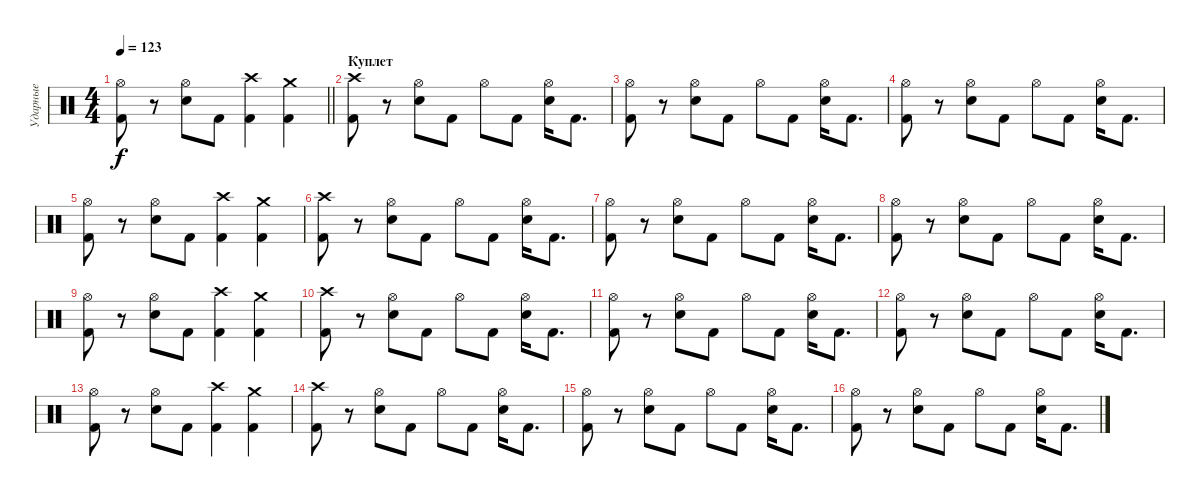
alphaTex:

\track ("Ударные" "Ударные") {instrument percussion}
\staff {score}
\articulation defaults
\ts (4 4)
\tempo 123
\clef neutral
\barLineRight lightlight
\ks c
("Hi-Hat (open)" "Kick (hit) 2").8{dy f} r.8 ("Hi-Hat (open)" "Electric Snare (hit)").8 "Kick (hit) 2".8 ("Kick (hit) 2" "Crash high (hit)").4 ("Kick (hit) 2" "Crash medium (hit)").4 |
\section ("" "Куплет")
("Crash high (hit)" "Kick (hit) 2").8 r.8 ("Hi-Hat (open)" "Electric Snare (hit)").8 "Kick (hit) 2".8 "Hi-Hat (open)".8 "Kick (hit) 2".8 ("Hi-Hat (open)" "Electric Snare (hit)").16 "Kick (hit) 2".8{d} |
("Hi-Hat (open)" "Kick (hit) 2").8 r.8 ("Hi-Hat (open)" "Electric Snare (hit)").8 "Kick (hit) 2".8 "Hi-Hat (open)".8 "Kick (hit) 2".8 ("Hi-Hat (open)" "Electric Snare (hit)").16 "Kick (hit) 2".8{d} |
("Hi-Hat (open)" "Kick (hit) 2").8 r.8 ("Hi-Hat (open)" "Electric Snare (hit)").8 "Kick (hit) 2".8 "Hi-Hat (open)".8 "Kick (hit) 2".8 ("Hi-Hat (open)" "Electric Snare (hit)").16 "Kick (hit) 2".8{d} |
("Hi-Hat (open)" "Kick (hit) 2").8 r.8 ("Hi-Hat (open)" "Electric Snare (hit)").8 "Kick (hit) 2".8 ("Kick (hit) 2" "Crash high (hit)").4 ("Kick (hit) 2" "Crash medium (hit)").4 |
("Crash high (hit)" "Kick (hit) 2").8 r.8 ("Hi-Hat (open)" "Electric Snare (hit)").8 "Kick (hit) 2".8 "Hi-Hat (open)".8 "Kick (hit) 2".8 ("Hi-Hat (open)" "Electric Snare (hit)").16 "Kick (hit) 2".8{d} |
("Hi-Hat (open)" "Kick (hit) 2").8 r.8 ("Hi-Hat (open)" "Electric Snare (hit)").8 "Kick (hit) 2".8 "Hi-Hat (open)".8 "Kick (hit) 2".8 ("Hi-Hat (open)" "Electric Snare (hit)").16 "Kick (hit) 2".8{d} |
("Hi-Hat (open)" "Kick (hit) 2").8 r.8 ("Hi-Hat (open)" "Electric Snare (hit)").8 "Kick (hit) 2".8 "Hi-Hat (open)".8 "Kick (hit) 2".8 ("Hi-Hat (open)" "Electric Snare (hit)").16 "Kick (hit) 2".8{d} |
("Hi-Hat (open)" "Kick (hit) 2").8 r.8 ("Hi-Hat (open)" "Electric Snare (hit)").8 "Kick (hit) 2".8 ("Kick (hit) 2" "Crash high (hit)").4 ("Kick (hit) 2" "Crash medium (hit)").4 |
("Crash high (hit)" "Kick (hit) 2").8 r.8 ("Hi-Hat (open)" "Electric Snare (hit)").8 "Kick (hit) 2".8 "Hi-Hat (open)".8 "Kick (hit) 2".8 ("Hi-Hat (open)" "Electric Snare (hit)").16 "Kick (hit) 2".8{d} |
("Hi-Hat (open)" "Kick (hit) 2").8 r.8 ("Hi-Hat (open)" "Electric Snare (hit)").8 "Kick (hit) 2".8 "Hi-Hat (open)".8 "Kick (hit) 2".8 ("Hi-Hat (open)" "Electric Snare (hit)").16 "Kick (hit) 2".8{d} |
("Hi-Hat (open)" "Kick (hit) 2").8 r.8 ("Hi-Hat (open)" "Electric Snare (hit)").8 "Kick (hit) 2".8 "Hi-Hat (open)".8 "Kick (hit) 2".8 ("Hi-Hat (open)" "Electric Snare (hit)").16 "Kick (hit) 2".8{d} |
("Hi-Hat (open)" "Kick (hit) 2").8 r.8 ("Hi-Hat (open)" "Electric Snare (hit)").8 "Kick (hit) 2".8 ("Kick (hit) 2" "Crash high (hit)").4 ("Kick (hit) 2" "Crash medium (hit)").4 |
("Crash high (hit)" "Kick (hit) 2").8 r.8 ("Hi-Hat (open)" "Electric Snare (hit)").8 "Kick (hit) 2".8 "Hi-Hat (open)".8 "Kick (hit) 2".8 ("Hi-Hat (open)" "Electric Snare (hit)").16 "Kick (hit) 2".8{d} |
("Hi-Hat (open)" "Kick (hit) 2").8 r.8 ("Hi-Hat (open)" "Electric Snare (hit)").8 "Kick (hit) 2".8 "Hi-Hat (open)".8 "Kick (hit) 2".8 ("Hi-Hat (open)" "Electric Snare (hit)").16 "Kick (hit) 2".8{d} |
("Hi-Hat (open)" "Kick (hit) 2").8 r.8 ("Hi-Hat (open)" "Electric Snare (hit)").8 "Kick (hit) 2".8 "Hi-Hat (open)".8 "Kick (hit) 2".8 ("Hi-Hat (open)" "Electric Snare (hit)").16 "Kick (hit) 2".8{d}
